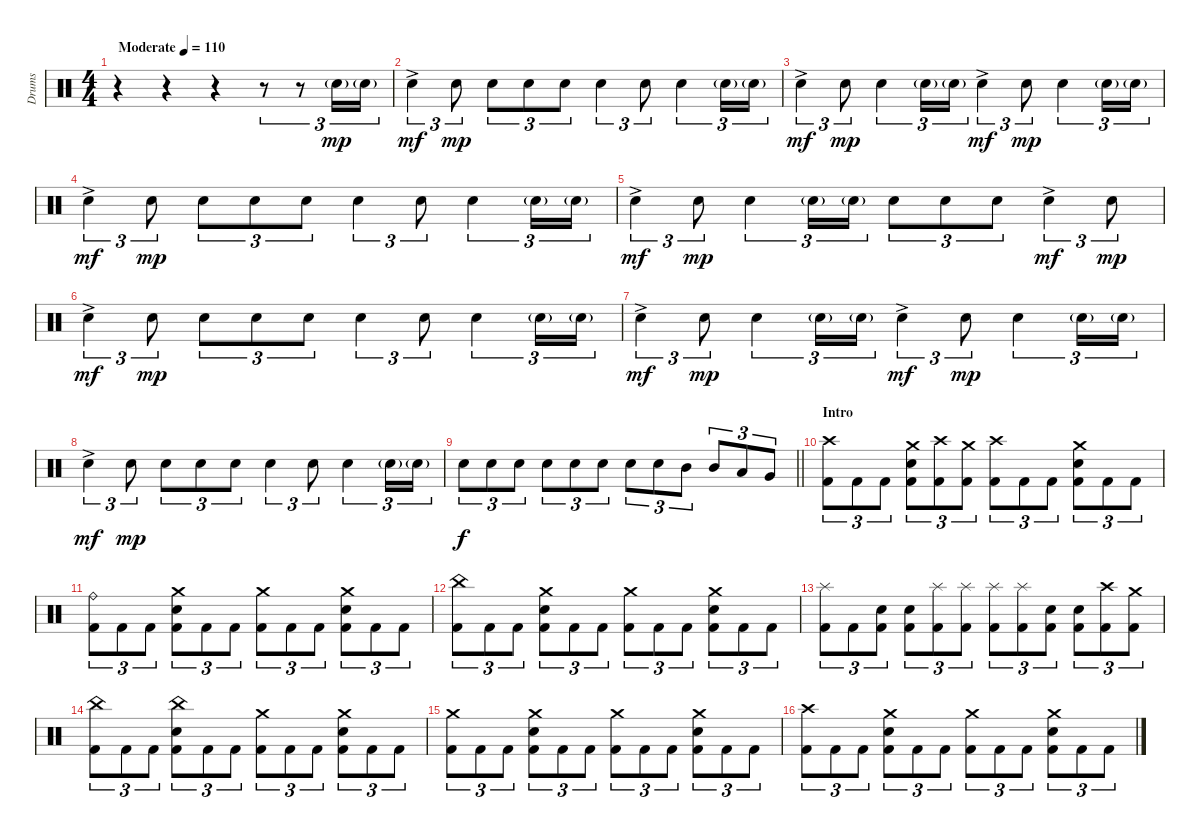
\track ("Drums" "Drums") {instrument percussion}
\staff {score}
\articulation defaults
\ts (4 4)
\tempo (110 "Moderate")
\tempo 150
\tempo (110 "Moderate")
\clef neutral
\ks c
r.4{dy mp} r.4 r.4 r.8{tu (3 2)} r.8{tu (3 2)} "Electric Snare (hit)"{g}.16{tu (3 2)} "Electric Snare (hit)"{g}.16{tu (3 2)} |
"Electric Snare (hit)"{ac}.4{tu (3 2) dy mf} "Electric Snare (hit)".8{tu (3 2) dy mp} "Electric Snare (hit)".8{tu (3 2)} "Electric Snare (hit)".8{tu (3 2)} "Electric Snare (hit)".8{tu (3 2)} "Electric Snare (hit)".4{tu (3 2)} "Electric Snare (hit)".8{tu (3 2)} "Electric Snare (hit)".4{tu (3 2)} "Electric Snare (hit)"{g}.16{tu (3 2)} "Electric Snare (hit)"{g}.16{tu (3 2)} |
"Electric Snare (hit)"{ac}.4{tu (3 2) dy mf} "Electric Snare (hit)".8{tu (3 2) dy mp} "Electric Snare (hit)".4{tu (3 2)} "Electric Snare (hit)"{g}.16{tu (3 2)} "Electric Snare (hit)"{g}.16{tu (3 2)} "Electric Snare (hit)"{ac}.4{tu (3 2) dy mf} "Electric Snare (hit)".8{tu (3 2) dy mp} "Electric Snare (hit)".4{tu (3 2)} "Electric Snare (hit)"{g}.16{tu (3 2)} "Electric Snare (hit)"{g}.16{tu (3 2)} |
"Electric Snare (hit)"{ac}.4{tu (3 2) dy mf} "Electric Snare (hit)".8{tu (3 2) dy mp} "Electric Snare (hit)".8{tu (3 2)} "Electric Snare (hit)".8{tu (3 2)} "Electric Snare (hit)".8{tu (3 2)} "Electric Snare (hit)".4{tu (3 2)} "Electric Snare (hit)".8{tu (3 2)} "Electric Snare (hit)".4{tu (3 2)} "Electric Snare (hit)"{g}.16{tu (3 2)} "Electric Snare (hit)"{g}.16{tu (3 2)} |
"Electric Snare (hit)"{ac}.4{tu (3 2) dy mf} "Electric Snare (hit)".8{tu (3 2) dy mp} "Electric Snare (hit)".4{tu (3 2)} "Electric Snare (hit)"{g}.16{tu (3 2)} "Electric Snare (hit)"{g}.16{tu (3 2)} "Electric Snare (hit)".8{tu (3 2)} "Electric Snare (hit)".8{tu (3 2)} "Electric Snare (hit)".8{tu (3 2)} "Electric Snare (hit)"{ac}.4{tu (3 2) dy mf} "Electric Snare (hit)".8{tu (3 2) dy mp} |
"Electric Snare (hit)"{ac}.4{tu (3 2) dy mf} "Electric Snare (hit)".8{tu (3 2) dy mp} "Electric Snare (hit)".8{tu (3 2)} "Electric Snare (hit)".8{tu (3 2)} "Electric Snare (hit)".8{tu (3 2)} "Electric Snare (hit)".4{tu (3 2)} "Electric Snare (hit)".8{tu (3 2)} "Electric Snare (hit)".4{tu (3 2)} "Electric Snare (hit)"{g}.16{tu (3 2)} "Electric Snare (hit)"{g}.16{tu (3 2)} |
"Electric Snare (hit)"{ac}.4{tu (3 2) dy mf} "Electric Snare (hit)".8{tu (3 2) dy mp} "Electric Snare (hit)".4{tu (3 2)} "Electric Snare (hit)"{g}.16{tu (3 2)} "Electric Snare (hit)"{g}.16{tu (3 2)} "Electric Snare (hit)"{ac}.4{tu (3 2) dy mf} "Electric Snare (hit)".8{tu (3 2) dy mp} "Electric Snare (hit)".4{tu (3 2)} "Electric Snare (hit)"{g}.16{tu (3 2)} "Electric Snare (hit)"{g}.16{tu (3 2)} |
"Electric Snare (hit)"{ac}.4{tu (3 2) dy mf} "Electric Snare (hit)".8{tu (3 2) dy mp} "Electric Snare (hit)".8{tu (3 2)} "Electric Snare (hit)".8{tu (3 2)} "Electric Snare (hit)".8{tu (3 2)} "Electric Snare (hit)".4{tu (3 2)} "Electric Snare (hit)".8{tu (3 2)} "Electric Snare (hit)".4{tu (3 2)} "Electric Snare (hit)"{g}.16{tu (3 2)} "Electric Snare (hit)"{g}.16{tu (3 2)} |
\barLineRight lightlight "Electric Snare (hit)".8{tu (3 2) dy f} "Electric Snare (hit)".8{tu (3 2)} "Electric Snare (hit)".8{tu (3 2)} "Electric Snare (hit)".8{tu (3 2)} "Electric Snare (hit)".8{tu (3 2)} "Electric Snare (hit)".8{tu (3 2)} "Electric Snare (hit)".8{tu (3 2)} "Electric Snare (hit)".8{tu (3 2)} "Mid Tom (hit)".8{tu (3 2)} "Mid Tom (hit)".8{tu (3 2)} "Low Tom (hit)".8{tu (3 2)} "Very Low Tom (hit)".8{tu (3 2)}
|
\section ("" "Intro")
("Crash high (hit)" "Kick (hit) 2").8{tu (3 2)} "Kick (hit) 2".8{tu (3 2)} "Kick (hit) 2".8{tu (3 2)} ("Crash medium (hit)" "Electric Snare (hit)" "Kick (hit) 2").8{tu (3 2)} ("Crash high (hit)" "Kick (hit) 2").8{tu (3 2)} ("Crash medium (hit)" "Kick (hit) 2").8{tu (3 2)} ("Crash high (hit)" "Kick (hit) 2").8{tu (3 2)} "Kick (hit) 2".8{tu (3 2)} "Kick (hit) 2".8{tu (3 2)} ("Crash medium (hit)" "Electric Snare (hit)" "Kick (hit) 2").8{tu (3 2)} "Kick (hit) 2".8{tu (3 2)} "Kick (hit) 2".8{tu (3 2)} |
("Ride (bell)" "Kick (hit) 2").8{tu (3 2)} "Kick (hit) 2".8{tu (3 2)} "Kick (hit) 2".8{tu (3 2)} ("Crash medium (hit)" "Electric Snare (hit)" "Kick (hit) 2").8{tu (3 2)} "Kick (hit) 2".8{tu (3 2)} "Kick (hit) 2".8{tu (3 2)} ("Crash medium (hit)" "Kick (hit) 2").8{tu (3 2)} "Kick (hit) 2".8{tu (3 2)} "Kick (hit) 2".8{tu (3 2)} ("Crash medium (hit)" "Electric Snare (hit)" "Kick (hit) 2").8{tu (3 2)} "Kick (hit) 2".8{tu (3 2)} "Kick (hit) 2".8{tu (3 2)} |
("China (hit)" "Kick (hit) 2").8{tu (3 2)} "Kick (hit) 2".8{tu (3 2)} "Kick (hit) 2".8{tu (3 2)} ("Crash medium (hit)" "Electric Snare (hit)" "Kick (hit) 2").8{tu (3 2)} "Kick (hit) 2".8{tu (3 2)} "Kick (hit) 2".8{tu (3 2)} ("Crash medium (hit)" "Kick (hit) 2").8{tu (3 2)} "Kick (hit) 2".8{tu (3 2)} "Kick (hit) 2".8{tu (3 2)} ("Crash medium (hit)" "Electric Snare (hit)" "Kick (hit) 2").8{tu (3 2)} "Kick (hit) 2".8{tu (3 2)} "Kick (hit) 2".8{tu (3 2)} |
("Splash (hit)" "Kick (hit) 2").8{tu (3 2)} "Kick (hit) 2".8{tu (3 2)} ("Electric Snare (hit)" "Kick (hit) 2").8{tu (3 2)} ("Electric Snare (hit)" "Kick (hit) 2").8{tu (3 2)} ("Splash (hit)" "Kick (hit) 2").8{tu (3 2)} ("Splash (hit)" "Kick (hit) 2").8{tu (3 2)} ("Splash (hit)" "Kick (hit) 2").8{tu (3 2)} ("Splash (hit)" "Kick (hit) 2").8{tu (3 2)} ("Electric Snare (hit)" "Kick (hit) 2").8{tu (3 2)} ("Electric Snare (hit)" "Kick (hit) 2").8{tu (3 2)} ("Crash high (hit)" "Kick (hit) 2").8{tu (3 2)} ("Crash medium (hit)" "Kick (hit) 2").8{tu (3 2)} |
("China (hit)" "Kick (hit) 2").8{tu (3 2)} "Kick (hit) 2".8{tu (3 2)} "Kick (hit) 2".8{tu (3 2)} ("China (hit)" "Electric Snare (hit)" "Kick (hit) 2").8{tu (3 2)} "Kick (hit) 2".8{tu (3 2)} "Kick (hit) 2".8{tu (3 2)} ("Crash medium (hit)" "Kick (hit) 2").8{tu (3 2)} "Kick (hit) 2".8{tu (3 2)} "Kick (hit) 2".8{tu (3 2)} ("Crash medium (hit)" "Electric Snare (hit)" "Kick (hit) 2").8{tu (3 2)} "Kick (hit) 2".8{tu (3 2)} "Kick (hit) 2".8{tu (3 2)} |
("Crash medium (hit)" "Kick (hit) 2").8{tu (3 2)} "Kick (hit) 2".8{tu (3 2)} "Kick (hit) 2".8{tu (3 2)} ("Crash medium (hit)" "Electric Snare (hit)" "Kick (hit) 2").8{tu (3 2)} "Kick (hit) 2".8{tu (3 2)} "Kick (hit) 2".8{tu (3 2)} ("Crash medium (hit)" "Kick (hit) 2").8{tu (3 2)} "Kick (hit) 2".8{tu (3 2)} "Kick (hit) 2".8{tu (3 2)} ("Crash medium (hit)" "Electric Snare (hit)" "Kick (hit) 2").8{tu (3 2)} "Kick (hit) 2".8{tu (3 2)} "Kick (hit) 2".8{tu (3 2)} |
("Crash high (hit)" "Kick (hit) 2").8{tu (3 2)} "Kick (hit) 2".8{tu (3 2)} "Kick (hit) 2".8{tu (3 2)} ("Crash medium (hit)" "Electric Snare (hit)" "Kick (hit) 2").8{tu (3 2)} "Kick (hit) 2".8{tu (3 2)} "Kick (hit) 2".8{tu (3 2)} ("Crash medium (hit)" "Kick (hit) 2").8{tu (3 2)} "Kick (hit) 2".8{tu (3 2)} "Kick (hit) 2".8{tu (3 2)} ("Crash medium (hit)" "Electric Snare (hit)" "Kick (hit) 2").8{tu (3 2)} "Kick (hit) 2".8{tu (3 2)} "Kick (hit) 2".8{tu (3 2)}
